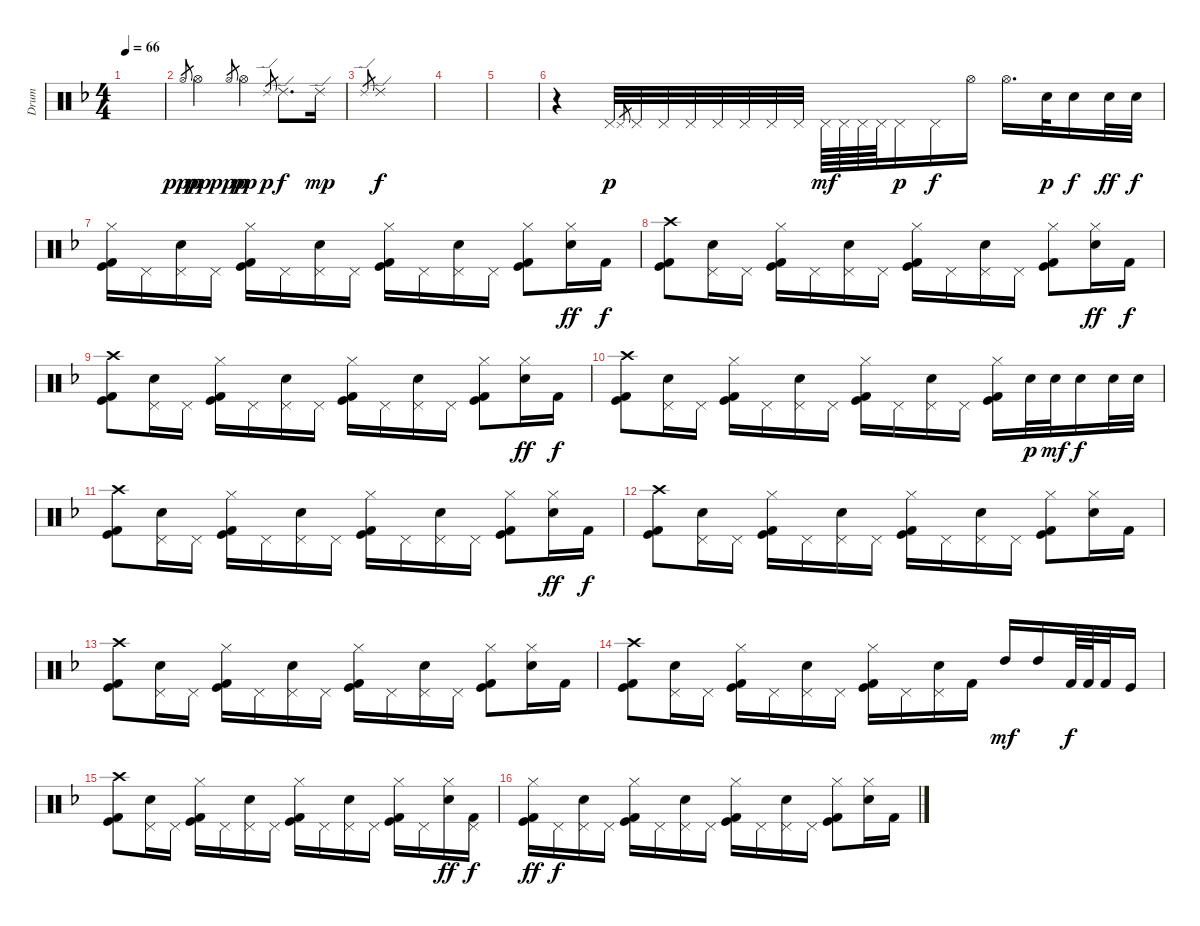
\track ("Drum" "Drum") {instrument percussion}
\staff {score}
\articulation defaults
\ts (4 4)
\tempo 66
\clef neutral
\ks dminor
|
"Hi-Hat (open)".8{gr dy ppp} "Hi-Hat (open)".2{dy pp} "Hi-Hat (open)".8{gr dy ppp} "Hi-Hat (open)".4{dy pp} "Ride (edge) 2".8{gr dy p} "Ride (edge) 2".8{d dy f} "Ride (edge) 2".16{dy mp} |
"Ride (edge) 2".8{gr} "Ride (edge) 2".1{dy f} |
|
|
r.4{balance 8} "Pedal Hi-Hat (hit)".32{dy p} "Pedal Hi-Hat (hit)".8{gr} "Pedal Hi-Hat (hit)".32 "Pedal Hi-Hat (hit)".32 "Pedal Hi-Hat (hit)".32 "Pedal Hi-Hat (hit)".32 "Pedal Hi-Hat (hit)".32 "Pedal Hi-Hat (hit)".32 "Pedal Hi-Hat (hit)".32 "Pedal Hi-Hat (hit)".64{dy mf} "Pedal Hi-Hat (hit)".64 "Pedal Hi-Hat (hit)".64 "Pedal Hi-Hat (hit)".64 "Pedal Hi-Hat (hit)".16{dy p} "Pedal Hi-Hat (hit)".16{dy f} "Hi-Hat (open)".16 "Hi-Hat (open)".16{d} "Electric Snare (hit)".32{dy p} "Electric Snare (hit)".16{dy f} "Electric Snare (hit)".32{dy ff} "Electric Snare (hit)".32{dy f} |
("Kick (hit)" "Kick (hit) 2" "Hi-Hat (closed)").16 "Pedal Hi-Hat (hit)".16 ("Electric Snare (hit)" "Pedal Hi-Hat (hit)").16 "Pedal Hi-Hat (hit)".16 ("Kick (hit)" "Kick (hit) 2" "Hi-Hat (closed)").16 "Pedal Hi-Hat (hit)".16 ("Electric Snare (hit)" "Pedal Hi-Hat (hit)").16 "Pedal Hi-Hat (hit)".16 ("Kick (hit)" "Kick (hit) 2" "Hi-Hat (closed)").16 "Pedal Hi-Hat (hit)".16 ("Electric Snare (hit)" "Pedal Hi-Hat (hit)").16 "Pedal Hi-Hat (hit)".16 ("Kick (hit)" "Kick (hit) 2" "Hi-Hat (closed)").8 ("Electric Snare (hit)" "Hi-Hat (closed)").16{dy ff} "Kick (hit) 2".16{dy f} |
("Kick (hit)" "Kick (hit) 2" "Crash high (hit)").8 ("Electric Snare (hit)" "Pedal Hi-Hat (hit)").16 "Pedal Hi-Hat (hit)".16 ("Kick (hit)" "Kick (hit) 2" "Hi-Hat (closed)").16 "Pedal Hi-Hat (hit)".16 ("Electric Snare (hit)" "Pedal Hi-Hat (hit)").16 "Pedal Hi-Hat (hit)".16 ("Kick (hit)" "Kick (hit) 2" "Hi-Hat (closed)").16 "Pedal Hi-Hat (hit)".16 ("Electric Snare (hit)" "Pedal Hi-Hat (hit)").16 "Pedal Hi-Hat (hit)".16 ("Kick (hit)" "Kick (hit) 2" "Hi-Hat (closed)").8 ("Electric Snare (hit)" "Hi-Hat (closed)").16{dy ff} "Kick (hit) 2".16{dy f} |
("Kick (hit)" "Kick (hit) 2" "Crash high (hit)").8 ("Electric Snare (hit)" "Pedal Hi-Hat (hit)").16 "Pedal Hi-Hat (hit)".16 ("Kick (hit)" "Kick (hit) 2" "Hi-Hat (closed)").16 "Pedal Hi-Hat (hit)".16 ("Electric Snare (hit)" "Pedal Hi-Hat (hit)").16 "Pedal Hi-Hat (hit)".16 ("Kick (hit)" "Kick (hit) 2" "Hi-Hat (closed)").16 "Pedal Hi-Hat (hit)".16 ("Electric Snare (hit)" "Pedal Hi-Hat (hit)").16 "Pedal Hi-Hat (hit)".16 ("Kick (hit)" "Kick (hit) 2" "Hi-Hat (closed)").8 ("Electric Snare (hit)" "Hi-Hat (closed)").16{dy ff} "Kick (hit) 2".16{dy f} |
("Kick (hit)" "Kick (hit) 2" "Crash high (hit)").8 ("Electric Snare (hit)" "Pedal Hi-Hat (hit)").16 "Pedal Hi-Hat (hit)".16 ("Kick (hit)" "Kick (hit) 2" "Hi-Hat (closed)").16 "Pedal Hi-Hat (hit)".16 ("Electric Snare (hit)" "Pedal Hi-Hat (hit)").16 "Pedal Hi-Hat (hit)".16 ("Kick (hit)" "Kick (hit) 2" "Hi-Hat (closed)").16 "Pedal Hi-Hat (hit)".16 ("Electric Snare (hit)" "Pedal Hi-Hat (hit)").16 "Pedal Hi-Hat (hit)".16 ("Kick (hit)" "Kick (hit) 2" "Hi-Hat (closed)").16 "Electric Snare (hit)".32{dy p} "Electric Snare (hit)".32{dy mf} "Electric Snare (hit)".16{dy f} "Electric Snare (hit)".32 "Electric Snare (hit)".32 |
("Kick (hit)" "Kick (hit) 2" "Crash high (hit)").8 ("Electric Snare (hit)" "Pedal Hi-Hat (hit)").16 "Pedal Hi-Hat (hit)".16 ("Kick (hit)" "Kick (hit) 2" "Hi-Hat (closed)").16 "Pedal Hi-Hat (hit)".16 ("Electric Snare (hit)" "Pedal Hi-Hat (hit)").16 "Pedal Hi-Hat (hit)".16 ("Kick (hit)" "Kick (hit) 2" "Hi-Hat (closed)").16 "Pedal Hi-Hat (hit)".16 ("Electric Snare (hit)" "Pedal Hi-Hat (hit)").16 "Pedal Hi-Hat (hit)".16 ("Kick (hit)" "Kick (hit) 2" "Hi-Hat (closed)").8 ("Electric Snare (hit)" "Hi-Hat (closed)").16{dy ff} "Kick (hit) 2".16{dy f} |
("Kick (hit)" "Kick (hit) 2" "Crash high (hit)").8 ("Electric Snare (hit)" "Pedal Hi-Hat (hit)").16 "Pedal Hi-Hat (hit)".16 ("Kick (hit)" "Kick (hit) 2" "Hi-Hat (closed)").16 "Pedal Hi-Hat (hit)".16 ("Electric Snare (hit)" "Pedal Hi-Hat (hit)").16 "Pedal Hi-Hat (hit)".16 ("Kick (hit)" "Kick (hit) 2" "Hi-Hat (closed)").16 "Pedal Hi-Hat (hit)".16 ("Electric Snare (hit)" "Pedal Hi-Hat (hit)").16 "Pedal Hi-Hat (hit)".16 ("Kick (hit)" "Kick (hit) 2" "Hi-Hat (closed)").8 ("Electric Snare (hit)" "Hi-Hat (closed)").16 "Kick (hit) 2".16 |
("Kick (hit)" "Kick (hit) 2" "Crash high (hit)").8 ("Electric Snare (hit)" "Pedal Hi-Hat (hit)").16 "Pedal Hi-Hat (hit)".16 ("Kick (hit)" "Kick (hit) 2" "Hi-Hat (closed)").16 "Pedal Hi-Hat (hit)".16 ("Electric Snare (hit)" "Pedal Hi-Hat (hit)").16 "Pedal Hi-Hat (hit)".16 ("Kick (hit)" "Kick (hit) 2" "Hi-Hat (closed)").16 "Pedal Hi-Hat (hit)".16 ("Electric Snare (hit)" "Pedal Hi-Hat (hit)").16 "Pedal Hi-Hat (hit)".16 ("Kick (hit)" "Kick (hit) 2" "Hi-Hat (closed)").8 ("Electric Snare (hit)" "Hi-Hat (closed)").16 "Kick (hit) 2".16 |
("Kick (hit)" "Kick (hit) 2" "Crash high (hit)").8 ("Electric Snare (hit)" "Pedal Hi-Hat (hit)").16 "Pedal Hi-Hat (hit)".16 ("Kick (hit)" "Kick (hit) 2" "Hi-Hat (closed)").16 "Pedal Hi-Hat (hit)".16 ("Electric Snare (hit)" "Pedal Hi-Hat (hit)").16 "Pedal Hi-Hat (hit)".16 ("Kick (hit)" "Kick (hit) 2" "Hi-Hat (closed)").16 "Pedal Hi-Hat (hit)".16 ("Electric Snare (hit)" "Pedal Hi-Hat (hit)").16 "Kick (hit) 2".16 "High Tom (hit)".16{dy mf} "High Tom (hit)".16 "Kick (hit) 2".64{dy f} "Kick (hit) 2".64 "Kick (hit) 2".32 "Kick (hit)".16 |
("Kick (hit)" "Kick (hit) 2" "Crash high (hit)").8 ("Electric Snare (hit)" "Pedal Hi-Hat (hit)").16 "Pedal Hi-Hat (hit)".16 ("Kick (hit)" "Kick (hit) 2" "Hi-Hat (closed)").16 "Pedal Hi-Hat (hit)".16 ("Electric Snare (hit)" "Pedal Hi-Hat (hit)").16 "Pedal Hi-Hat (hit)".16 ("Kick (hit)" "Kick (hit) 2" "Hi-Hat (closed)").16 "Pedal Hi-Hat (hit)".16 ("Electric Snare (hit)" "Pedal Hi-Hat (hit)").16 "Pedal Hi-Hat (hit)".16 ("Kick (hit)" "Kick (hit) 2" "Hi-Hat (closed)").16 "Pedal Hi-Hat (hit)".16 ("Electric Snare (hit)" "Hi-Hat (closed)").16{dy ff} ("Kick (hit) 2" "Pedal Hi-Hat (hit)").16{dy f} |
("Kick (hit)" "Kick (hit) 2" "Hi-Hat (closed)").16{dy ff} "Pedal Hi-Hat (hit)".16{dy f} ("Electric Snare (hit)" "Pedal Hi-Hat (hit)").16 "Pedal Hi-Hat (hit)".16 ("Kick (hit)" "Kick (hit) 2" "Hi-Hat (closed)").16 "Pedal Hi-Hat (hit)".16 ("Electric Snare (hit)" "Pedal Hi-Hat (hit)").16 "Pedal Hi-Hat (hit)".16 ("Kick (hit)" "Kick (hit) 2" "Hi-Hat (closed)").16 "Pedal Hi-Hat (hit)".16 ("Electric Snare (hit)" "Pedal Hi-Hat (hit)").16 "Pedal Hi-Hat (hit)".16 ("Kick (hit)" "Kick (hit) 2" "Hi-Hat (closed)").8 ("Electric Snare (hit)" "Hi-Hat (closed)").16 "Kick (hit) 2".16
